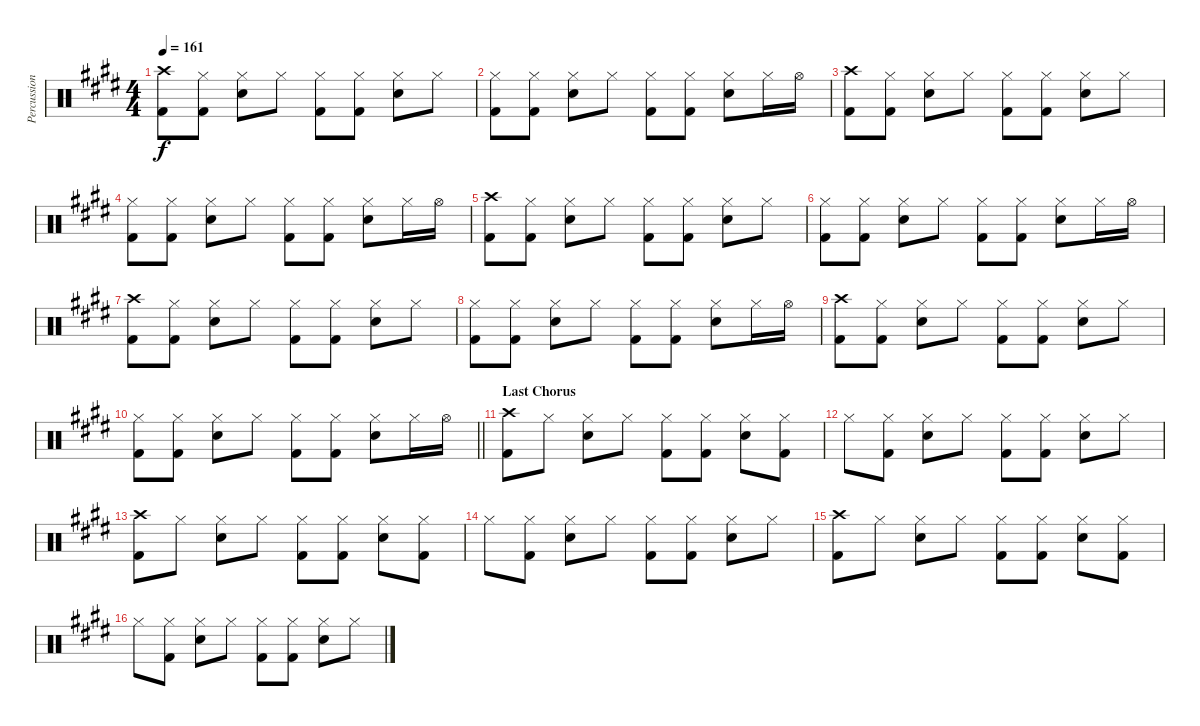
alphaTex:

\track ("Percussion" "Percussion") {instrument percussion}
\staff {score}
\articulation defaults
\ts (4 4)
\tempo 161
\clef neutral
\ks e
("Crash high (hit)" "Kick (hit) 2").8{dy f} ("Hi-Hat (closed)" "Kick (hit) 2").8 ("Hi-Hat (closed)" "Snare (hit) 2").8 "Hi-Hat (closed)".8 ("Hi-Hat (closed)" "Kick (hit) 2").8 ("Hi-Hat (closed)" "Kick (hit) 2").8 ("Hi-Hat (closed)" "Snare (hit) 2").8 "Hi-Hat (closed)".8 |
("Hi-Hat (closed)" "Kick (hit) 2").8 ("Hi-Hat (closed)" "Kick (hit) 2").8 ("Hi-Hat (closed)" "Snare (hit) 2").8 "Hi-Hat (closed)".8 ("Hi-Hat (closed)" "Kick (hit) 2").8 ("Hi-Hat (closed)" "Kick (hit) 2").8 ("Hi-Hat (closed)" "Snare (hit) 2").8 "Hi-Hat (closed)".16 "Hi-Hat (open)".16 |
("Crash high (hit)" "Kick (hit) 2").8 ("Hi-Hat (closed)" "Kick (hit) 2").8 ("Hi-Hat (closed)" "Snare (hit) 2").8 "Hi-Hat (closed)".8 ("Hi-Hat (closed)" "Kick (hit) 2").8 ("Hi-Hat (closed)" "Kick (hit) 2").8 ("Hi-Hat (closed)" "Snare (hit) 2").8 "Hi-Hat (closed)".8 |
("Hi-Hat (closed)" "Kick (hit) 2").8 ("Hi-Hat (closed)" "Kick (hit) 2").8 ("Hi-Hat (closed)" "Snare (hit) 2").8 "Hi-Hat (closed)".8 ("Hi-Hat (closed)" "Kick (hit) 2").8 ("Hi-Hat (closed)" "Kick (hit) 2").8 ("Hi-Hat (closed)" "Snare (hit) 2").8 "Hi-Hat (closed)".16 "Hi-Hat (open)".16 |
("Crash high (hit)" "Kick (hit) 2").8 ("Hi-Hat (closed)" "Kick (hit) 2").8 ("Hi-Hat (closed)" "Snare (hit) 2").8 "Hi-Hat (closed)".8 ("Hi-Hat (closed)" "Kick (hit) 2").8 ("Hi-Hat (closed)" "Kick (hit) 2").8 ("Hi-Hat (closed)" "Snare (hit) 2").8 "Hi-Hat (closed)".8 |
("Hi-Hat (closed)" "Kick (hit) 2").8 ("Hi-Hat (closed)" "Kick (hit) 2").8 ("Hi-Hat (closed)" "Snare (hit) 2").8 "Hi-Hat (closed)".8 ("Hi-Hat (closed)" "Kick (hit) 2").8 ("Hi-Hat (closed)" "Kick (hit) 2").8 ("Hi-Hat (closed)" "Snare (hit) 2").8 "Hi-Hat (closed)".16 "Hi-Hat (open)".16 |
("Crash high (hit)" "Kick (hit) 2").8 ("Hi-Hat (closed)" "Kick (hit) 2").8 ("Hi-Hat (closed)" "Snare (hit) 2").8 "Hi-Hat (closed)".8 ("Hi-Hat (closed)" "Kick (hit) 2").8 ("Hi-Hat (closed)" "Kick (hit) 2").8 ("Hi-Hat (closed)" "Snare (hit) 2").8 "Hi-Hat (closed)".8 |
("Hi-Hat (closed)" "Kick (hit) 2").8 ("Hi-Hat (closed)" "Kick (hit) 2").8 ("Hi-Hat (closed)" "Snare (hit) 2").8 "Hi-Hat (closed)".8 ("Hi-Hat (closed)" "Kick (hit) 2").8 ("Hi-Hat (closed)" "Kick (hit) 2").8 ("Hi-Hat (closed)" "Snare (hit) 2").8 "Hi-Hat (closed)".16 "Hi-Hat (open)".16 |
("Crash high (hit)" "Kick (hit) 2").8 ("Hi-Hat (closed)" "Kick (hit) 2").8 ("Hi-Hat (closed)" "Snare (hit) 2").8 "Hi-Hat (closed)".8 ("Hi-Hat (closed)" "Kick (hit) 2").8 ("Hi-Hat (closed)" "Kick (hit) 2").8 ("Hi-Hat (closed)" "Snare (hit) 2").8 "Hi-Hat (closed)".8 |
\barLineRight lightlight
("Hi-Hat (closed)" "Kick (hit) 2").8 ("Hi-Hat (closed)" "Kick (hit) 2").8 ("Hi-Hat (closed)" "Snare (hit) 2").8 "Hi-Hat (closed)".8 ("Hi-Hat (closed)" "Kick (hit) 2").8 ("Hi-Hat (closed)" "Kick (hit) 2").8 ("Hi-Hat (closed)" "Snare (hit) 2").8 "Hi-Hat (closed)".16 "Hi-Hat (open)".16 |
\section ("" "Last Chorus")
("Crash high (hit)" "Kick (hit) 2").8 "Hi-Hat (closed)".8 ("Hi-Hat (closed)" "Snare (hit) 2").8 "Hi-Hat (closed)".8 ("Hi-Hat (closed)" "Kick (hit) 2").8 ("Hi-Hat (closed)" "Kick (hit) 2").8 ("Hi-Hat (closed)" "Snare (hit) 2").8 ("Hi-Hat (closed)" "Kick (hit) 2").8 |
"Hi-Hat (closed)".8 ("Hi-Hat (closed)" "Kick (hit) 2").8 ("Hi-Hat (closed)" "Snare (hit) 2").8 "Hi-Hat (closed)".8 ("Hi-Hat (closed)" "Kick (hit) 2").8 ("Hi-Hat (closed)" "Kick (hit) 2").8 ("Hi-Hat (closed)" "Snare (hit) 2").8 "Hi-Hat (closed)".8 |
("Crash high (hit)" "Kick (hit) 2").8 "Hi-Hat (closed)".8 ("Hi-Hat (closed)" "Snare (hit) 2").8 "Hi-Hat (closed)".8 ("Hi-Hat (closed)" "Kick (hit) 2").8 ("Hi-Hat (closed)" "Kick (hit) 2").8 ("Hi-Hat (closed)" "Snare (hit) 2").8 ("Hi-Hat (closed)" "Kick (hit) 2").8 |
"Hi-Hat (closed)".8 ("Hi-Hat (closed)" "Kick (hit) 2").8 ("Hi-Hat (closed)" "Snare (hit) 2").8 "Hi-Hat (closed)".8 ("Hi-Hat (closed)" "Kick (hit) 2").8 ("Hi-Hat (closed)" "Kick (hit) 2").8 ("Hi-Hat (closed)" "Snare (hit) 2").8 "Hi-Hat (closed)".8 |
("Crash high (hit)" "Kick (hit) 2").8 "Hi-Hat (closed)".8 ("Hi-Hat (closed)" "Snare (hit) 2").8 "Hi-Hat (closed)".8 ("Hi-Hat (closed)" "Kick (hit) 2").8 ("Hi-Hat (closed)" "Kick (hit) 2").8 ("Hi-Hat (closed)" "Snare (hit) 2").8 ("Hi-Hat (closed)" "Kick (hit) 2").8 |
"Hi-Hat (closed)".8 ("Hi-Hat (closed)" "Kick (hit) 2").8 ("Hi-Hat (closed)" "Snare (hit) 2").8 "Hi-Hat (closed)".8 ("Hi-Hat (closed)" "Kick (hit) 2").8 ("Hi-Hat (closed)" "Kick (hit) 2").8 ("Hi-Hat (closed)" "Snare (hit) 2").8 "Hi-Hat (closed)".8
